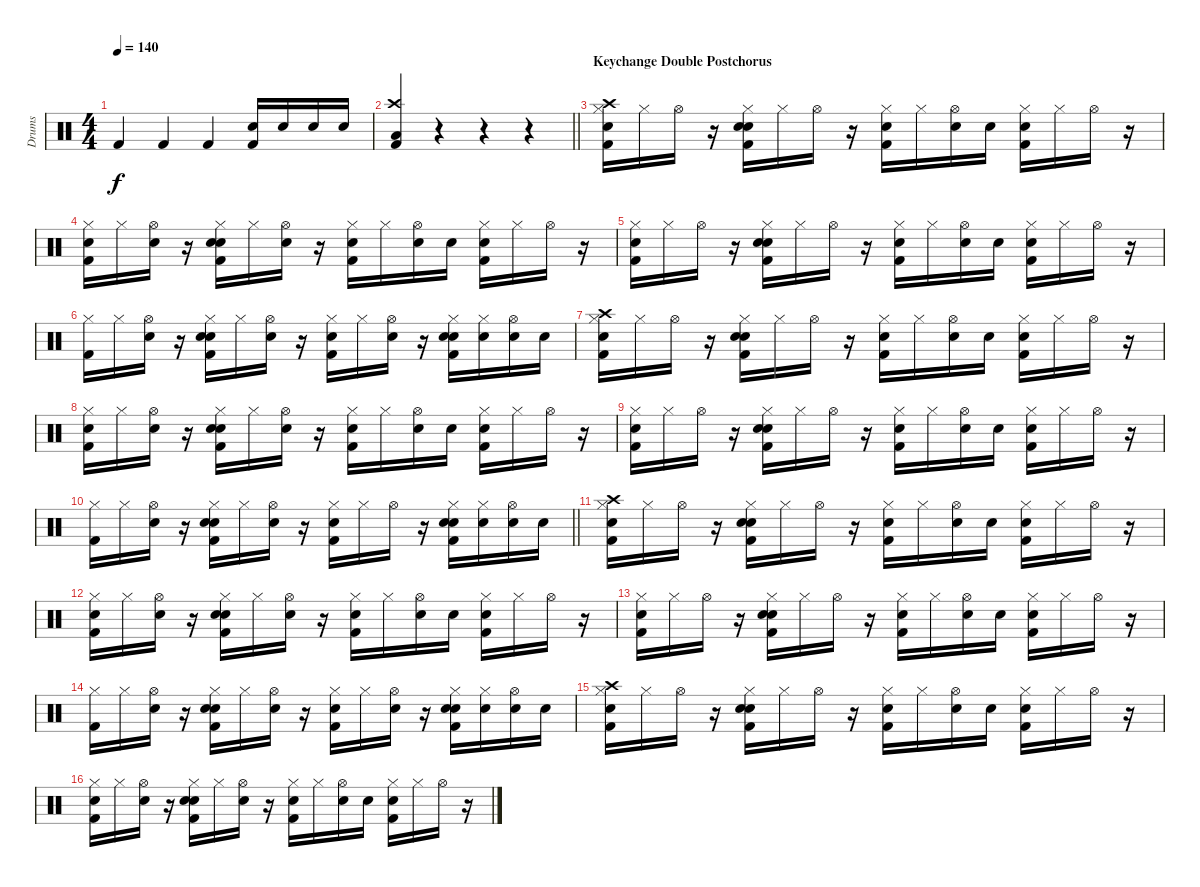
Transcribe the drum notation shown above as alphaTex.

\track ("Drums" "Drums") {instrument percussion}
\staff {score}
\articulation defaults
\ts (4 4)
\tempo 140
\clef neutral
\ks c "Kick (hit) 2".4{dy f} "Kick (hit) 2".4 "Kick (hit) 2".4
("Snare (hit) 2" "Kick (hit) 2").16 "Snare (hit) 2".16 "Snare (hit) 2".16 "Snare (hit) 2".16 |
\barLineRight lightlight
("Crash high (hit)" "Low Floor Tom (hit)" "Kick (hit) 2").4 r.4 r.4 r.4 |
\section ("" "Keychange Double Postchorus")
("Crash high (hit)" "Hi-Hat (closed)" "Hand Clap (hit)" "Kick (hit) 2").16 "Hi-Hat (closed)".16 "Hi-Hat (open)".16 r.16 ("Hi-Hat (closed)" "Hand Clap (hit)" "Snare (hit) 2" "Kick (hit) 2").16 "Hi-Hat (closed)".16 "Hi-Hat (open)".16 r.16 ("Hi-Hat (closed)" "Hand Clap (hit)" "Kick (hit) 2").16 "Hi-Hat (closed)".16 ("Hi-Hat (open)" "Hand Clap (hit)").16 "Hand Clap (hit)".16 ("Hi-Hat (closed)" "Snare (hit) 2" "Kick (hit) 2").16 "Hi-Hat (closed)".16 "Hi-Hat (open)".16 r.16 |
("Hi-Hat (closed)" "Hand Clap (hit)" "Kick (hit) 2").16 "Hi-Hat (closed)".16 ("Hi-Hat (open)" "Hand Clap (hit)").16 r.16 ("Hi-Hat (closed)" "Hand Clap (hit)" "Snare (hit) 2" "Kick (hit) 2").16 "Hi-Hat (closed)".16 ("Hi-Hat (open)" "Hand Clap (hit)").16 r.16 ("Hi-Hat (closed)" "Hand Clap (hit)" "Kick (hit) 2").16 "Hi-Hat (closed)".16 ("Hi-Hat (open)" "Hand Clap (hit)").16 "Hand Clap (hit)".16 ("Hi-Hat (closed)" "Snare (hit) 2" "Kick (hit) 2").16 "Hi-Hat (closed)".16 "Hi-Hat (open)".16 r.16 |
("Hi-Hat (closed)" "Hand Clap (hit)" "Kick (hit) 2").16 "Hi-Hat (closed)".16 "Hi-Hat (open)".16 r.16 ("Hi-Hat (closed)" "Hand Clap (hit)" "Snare (hit) 2" "Kick (hit) 2").16 "Hi-Hat (closed)".16 "Hi-Hat (open)".16 r.16 ("Hi-Hat (closed)" "Hand Clap (hit)" "Kick (hit) 2").16 "Hi-Hat (closed)".16 ("Hi-Hat (open)" "Hand Clap (hit)").16 "Hand Clap (hit)".16 ("Hi-Hat (closed)" "Snare (hit) 2" "Kick (hit) 2").16 "Hi-Hat (closed)".16 "Hi-Hat (open)".16 r.16 |
("Hi-Hat (closed)" "Kick (hit) 2").16 "Hi-Hat (closed)".16 ("Hi-Hat (open)" "Hand Clap (hit)").16 r.16 ("Hi-Hat (closed)" "Hand Clap (hit)" "Snare (hit) 2" "Kick (hit) 2").16 "Hi-Hat (closed)".16 ("Hi-Hat (open)" "Hand Clap (hit)").16 r.16 ("Hi-Hat (closed)" "Hand Clap (hit)" "Kick (hit) 2").16 "Hi-Hat (closed)".16 ("Hi-Hat (open)" "Hand Clap (hit)").16 r.16 ("Hi-Hat (closed)" "Hand Clap (hit)" "Snare (hit) 2" "Kick (hit) 2").16 ("Hi-Hat (closed)" "Snare (hit) 2").16 ("Hi-Hat (open)" "Snare (hit) 2").16 "Snare (hit) 2".16 |
("Crash high (hit)" "Hi-Hat (closed)" "Hand Clap (hit)" "Kick (hit) 2").16 "Hi-Hat (closed)".16 "Hi-Hat (open)".16 r.16 ("Hi-Hat (closed)" "Hand Clap (hit)" "Snare (hit) 2" "Kick (hit) 2").16 "Hi-Hat (closed)".16 "Hi-Hat (open)".16 r.16 ("Hi-Hat (closed)" "Hand Clap (hit)" "Kick (hit) 2").16 "Hi-Hat (closed)".16 ("Hi-Hat (open)" "Hand Clap (hit)").16 "Hand Clap (hit)".16 ("Hi-Hat (closed)" "Snare (hit) 2" "Kick (hit) 2").16 "Hi-Hat (closed)".16 "Hi-Hat (open)".16 r.16 |
("Hi-Hat (closed)" "Hand Clap (hit)" "Kick (hit) 2").16 "Hi-Hat (closed)".16 ("Hi-Hat (open)" "Hand Clap (hit)").16 r.16 ("Hi-Hat (closed)" "Hand Clap (hit)" "Snare (hit) 2" "Kick (hit) 2").16 "Hi-Hat (closed)".16 ("Hi-Hat (open)" "Hand Clap (hit)").16 r.16 ("Hi-Hat (closed)" "Hand Clap (hit)" "Kick (hit) 2").16 "Hi-Hat (closed)".16 ("Hi-Hat (open)" "Hand Clap (hit)").16 "Hand Clap (hit)".16 ("Hi-Hat (closed)" "Snare (hit) 2" "Kick (hit) 2").16 "Hi-Hat (closed)".16 "Hi-Hat (open)".16 r.16 |
("Hi-Hat (closed)" "Hand Clap (hit)" "Kick (hit) 2").16 "Hi-Hat (closed)".16 "Hi-Hat (open)".16 r.16 ("Hi-Hat (closed)" "Hand Clap (hit)" "Snare (hit) 2" "Kick (hit) 2").16 "Hi-Hat (closed)".16 "Hi-Hat (open)".16 r.16 ("Hi-Hat (closed)" "Hand Clap (hit)" "Kick (hit) 2").16 "Hi-Hat (closed)".16 ("Hi-Hat (open)" "Hand Clap (hit)").16 "Hand Clap (hit)".16 ("Hi-Hat (closed)" "Snare (hit) 2" "Kick (hit) 2").16 "Hi-Hat (closed)".16 "Hi-Hat (open)".16 r.16 |
\barLineRight lightlight
("Hi-Hat (closed)" "Kick (hit) 2").16 "Hi-Hat (closed)".16 ("Hi-Hat (open)" "Hand Clap (hit)").16 r.16 ("Hi-Hat (closed)" "Hand Clap (hit)" "Snare (hit) 2" "Kick (hit) 2").16 "Hi-Hat (closed)".16 ("Hi-Hat (open)" "Hand Clap (hit)").16 r.16 ("Hi-Hat (closed)" "Hand Clap (hit)" "Kick (hit) 2").16 "Hi-Hat (closed)".16 "Hi-Hat (open)".16 r.16 ("Hi-Hat (closed)" "Hand Clap (hit)" "Snare (hit) 2" "Kick (hit) 2").16 ("Hi-Hat (closed)" "Snare (hit) 2").16 ("Hi-Hat (open)" "Snare (hit) 2").16 "Snare (hit) 2".16 |
("Crash high (hit)" "Hi-Hat (closed)" "Hand Clap (hit)" "Kick (hit) 2").16 "Hi-Hat (closed)".16 "Hi-Hat (open)".16 r.16 ("Hi-Hat (closed)" "Hand Clap (hit)" "Snare (hit) 2" "Kick (hit) 2").16 "Hi-Hat (closed)".16 "Hi-Hat (open)".16 r.16 ("Hi-Hat (closed)" "Hand Clap (hit)" "Kick (hit) 2").16 "Hi-Hat (closed)".16 ("Hi-Hat (open)" "Hand Clap (hit)").16 "Hand Clap (hit)".16 ("Hi-Hat (closed)" "Snare (hit) 2" "Kick (hit) 2").16 "Hi-Hat (closed)".16 "Hi-Hat (open)".16 r.16 |
("Hi-Hat (closed)" "Hand Clap (hit)" "Kick (hit) 2").16 "Hi-Hat (closed)".16 ("Hi-Hat (open)" "Hand Clap (hit)").16 r.16 ("Hi-Hat (closed)" "Hand Clap (hit)" "Snare (hit) 2" "Kick (hit) 2").16 "Hi-Hat (closed)".16 ("Hi-Hat (open)" "Hand Clap (hit)").16 r.16 ("Hi-Hat (closed)" "Hand Clap (hit)" "Kick (hit) 2").16 "Hi-Hat (closed)".16 ("Hi-Hat (open)" "Hand Clap (hit)").16 "Hand Clap (hit)".16 ("Hi-Hat (closed)" "Snare (hit) 2" "Kick (hit) 2").16 "Hi-Hat (closed)".16 "Hi-Hat (open)".16 r.16 |
("Hi-Hat (closed)" "Hand Clap (hit)" "Kick (hit) 2").16 "Hi-Hat (closed)".16 "Hi-Hat (open)".16 r.16 ("Hi-Hat (closed)" "Hand Clap (hit)" "Snare (hit) 2" "Kick (hit) 2").16 "Hi-Hat (closed)".16 "Hi-Hat (open)".16 r.16 ("Hi-Hat (closed)" "Hand Clap (hit)" "Kick (hit) 2").16 "Hi-Hat (closed)".16 ("Hi-Hat (open)" "Hand Clap (hit)").16 "Hand Clap (hit)".16 ("Hi-Hat (closed)" "Snare (hit) 2" "Kick (hit) 2").16 "Hi-Hat (closed)".16 "Hi-Hat (open)".16 r.16 |
("Hi-Hat (closed)" "Kick (hit) 2").16 "Hi-Hat (closed)".16 ("Hi-Hat (open)" "Hand Clap (hit)").16 r.16 ("Hi-Hat (closed)" "Hand Clap (hit)" "Snare (hit) 2" "Kick (hit) 2").16 "Hi-Hat (closed)".16 ("Hi-Hat (open)" "Hand Clap (hit)").16 r.16 ("Hi-Hat (closed)" "Hand Clap (hit)" "Kick (hit) 2").16 "Hi-Hat (closed)".16 ("Hi-Hat (open)" "Hand Clap (hit)").16 r.16 ("Hi-Hat (closed)" "Hand Clap (hit)" "Snare (hit) 2" "Kick (hit) 2").16 ("Hi-Hat (closed)" "Snare (hit) 2").16 ("Hi-Hat (open)" "Snare (hit) 2").16 "Snare (hit) 2".16 |
("Crash high (hit)" "Hi-Hat (closed)" "Hand Clap (hit)" "Kick (hit) 2").16 "Hi-Hat (closed)".16 "Hi-Hat (open)".16 r.16 ("Hi-Hat (closed)" "Hand Clap (hit)" "Snare (hit) 2" "Kick (hit) 2").16 "Hi-Hat (closed)".16 "Hi-Hat (open)".16 r.16 ("Hi-Hat (closed)" "Hand Clap (hit)" "Kick (hit) 2").16 "Hi-Hat (closed)".16 ("Hi-Hat (open)" "Hand Clap (hit)").16 "Hand Clap (hit)".16 ("Hi-Hat (closed)" "Snare (hit) 2" "Kick (hit) 2").16 "Hi-Hat (closed)".16 "Hi-Hat (open)".16 r.16 |
("Hi-Hat (closed)" "Hand Clap (hit)" "Kick (hit) 2").16 "Hi-Hat (closed)".16 ("Hi-Hat (open)" "Hand Clap (hit)").16 r.16 ("Hi-Hat (closed)" "Hand Clap (hit)" "Snare (hit) 2" "Kick (hit) 2").16 "Hi-Hat (closed)".16 ("Hi-Hat (open)" "Hand Clap (hit)").16 r.16 ("Hi-Hat (closed)" "Hand Clap (hit)" "Kick (hit) 2").16 "Hi-Hat (closed)".16 ("Hi-Hat (open)" "Hand Clap (hit)").16 "Hand Clap (hit)".16 ("Hi-Hat (closed)" "Snare (hit) 2" "Kick (hit) 2").16 "Hi-Hat (closed)".16 "Hi-Hat (open)".16 r.16
